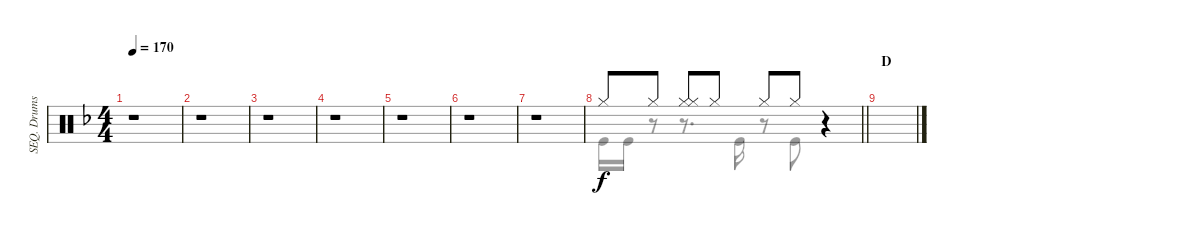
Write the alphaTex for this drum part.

\track ("SEQ. Drums" "SEQ. Drums") {instrument percussion}
\staff {score}
\articulation defaults
\voice
\ts (4 4)
\tempo 170
\clef neutral
\ks f
r.1{dy f} |
r.1 |
r.1 |
r.1 |
r.1 |
r.1 |
r.1 |
\barLineRight lightlight "Hi-Hat (closed)".8 "Hi-Hat (closed)".8
("Hi-Hat (closed)" "Hi-Hat (closed)").8 "Hi-Hat (closed)".8 "Hi-Hat (closed)".8 "Hi-Hat (closed)".8 r.4 |
\section ("" "D")
|
|
|
|
|
|
|
\voice
\clef neutral
\ottava regular
\simile none
\ks f
|
|
|
|
|
|
|
\barLineRight lightlight "Kick (hit)".16 "Kick (hit)".16
r.8 r.8{d} "Kick (hit)".16 r.8 "Kick (hit)".8 r.4 |
|
|
|
|
|
|
|
